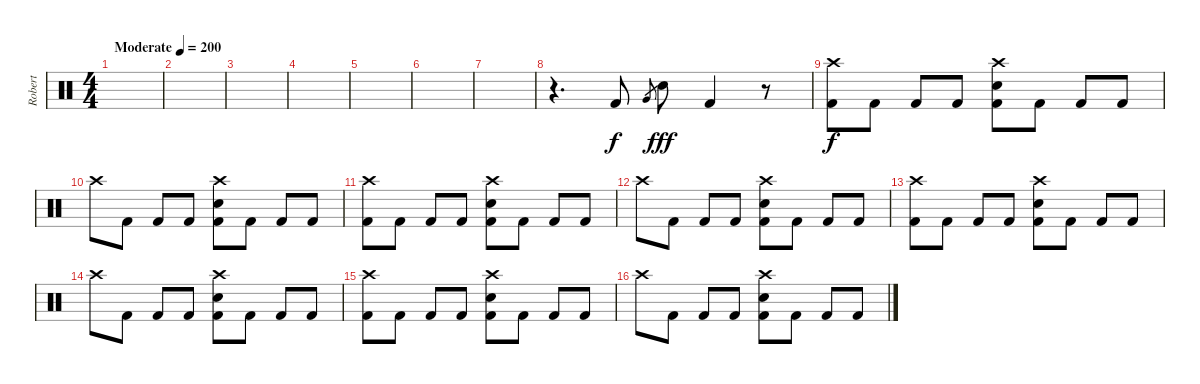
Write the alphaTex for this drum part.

\track ("Robert" "Robert") {instrument percussion}
\staff {score}
\articulation defaults
\ts (4 4)
\tempo (200 "Moderate")
\clef neutral
\ks c
|
|
|
|
|
|
|
r.4{d volume 16} "Kick (hit) 2".8 "Very Low Tom (hit)".8{gr dy f} "Electric Snare (hit)".8{dy fff} "Kick (hit) 2".4 r.8 |
("Crash high (hit)" "Kick (hit) 2").8{dy f volume 12} "Kick (hit) 2".8 "Kick (hit) 2".8 "Kick (hit) 2".8 ("Crash high (hit)" "Electric Snare (hit)" "Kick (hit) 2").8 "Kick (hit) 2".8 "Kick (hit) 2".8 "Kick (hit) 2".8 |
"Crash high (hit)".8 "Kick (hit) 2".8 "Kick (hit) 2".8 "Kick (hit) 2".8 ("Crash high (hit)" "Electric Snare (hit)" "Kick (hit) 2").8 "Kick (hit) 2".8 "Kick (hit) 2".8 "Kick (hit) 2".8 |
("Crash high (hit)" "Kick (hit) 2").8 "Kick (hit) 2".8 "Kick (hit) 2".8 "Kick (hit) 2".8 ("Crash high (hit)" "Electric Snare (hit)" "Kick (hit) 2").8 "Kick (hit) 2".8 "Kick (hit) 2".8 "Kick (hit) 2".8 |
"Crash high (hit)".8 "Kick (hit) 2".8 "Kick (hit) 2".8 "Kick (hit) 2".8 ("Crash high (hit)" "Electric Snare (hit)" "Kick (hit) 2").8 "Kick (hit) 2".8 "Kick (hit) 2".8 "Kick (hit) 2".8 |
("Crash high (hit)" "Kick (hit) 2").8 "Kick (hit) 2".8 "Kick (hit) 2".8 "Kick (hit) 2".8 ("Crash high (hit)" "Electric Snare (hit)" "Kick (hit) 2").8 "Kick (hit) 2".8 "Kick (hit) 2".8 "Kick (hit) 2".8 |
"Crash high (hit)".8 "Kick (hit) 2".8 "Kick (hit) 2".8 "Kick (hit) 2".8 ("Crash high (hit)" "Electric Snare (hit)" "Kick (hit) 2").8 "Kick (hit) 2".8 "Kick (hit) 2".8 "Kick (hit) 2".8 |
("Crash high (hit)" "Kick (hit) 2").8 "Kick (hit) 2".8 "Kick (hit) 2".8 "Kick (hit) 2".8 ("Crash high (hit)" "Electric Snare (hit)" "Kick (hit) 2").8 "Kick (hit) 2".8 "Kick (hit) 2".8 "Kick (hit) 2".8 |
"Crash high (hit)".8 "Kick (hit) 2".8 "Kick (hit) 2".8 "Kick (hit) 2".8 ("Crash high (hit)" "Electric Snare (hit)" "Kick (hit) 2").8 "Kick (hit) 2".8 "Kick (hit) 2".8 "Kick (hit) 2".8
